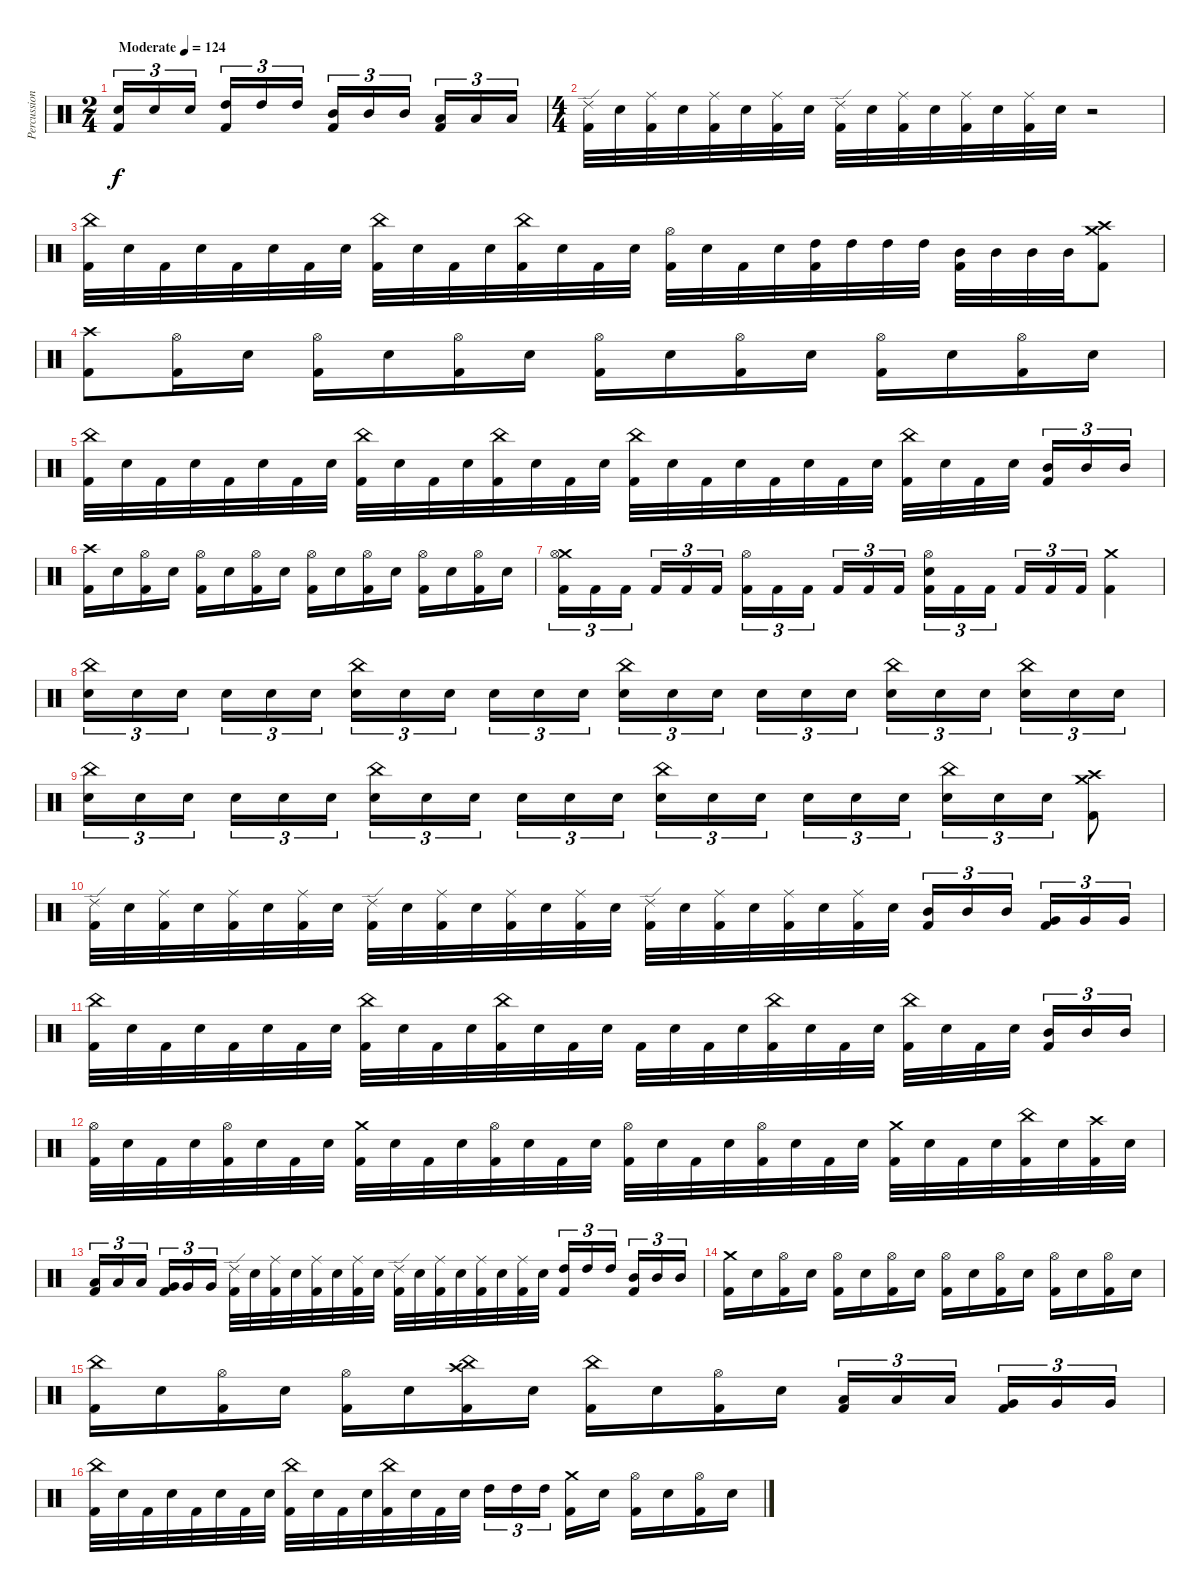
\track ("Percussion" "Percussion") {instrument percussion}
\staff {score}
\articulation defaults
\ts (2 4)
\tempo (124 "Moderate")
\clef neutral
\ks c
("Electric Snare (hit)" "Kick (hit) 2").16{tu (3 2) dy f} "Electric Snare (hit)".16{tu (3 2)} "Electric Snare (hit)".16{tu (3 2) beam splitsecondary} ("High Tom (hit)" "Kick (hit) 2").16{tu (3 2)} "High Tom (hit)".16{tu (3 2)} "High Tom (hit)".16{tu (3 2)} ("Mid Tom (hit)" "Kick (hit) 2").16{tu (3 2)} "Mid Tom (hit)".16{tu (3 2)} "Mid Tom (hit)".16{tu (3 2) beam splitsecondary} ("Low Tom (hit)" "Kick (hit) 2").16{tu (3 2)} "Low Tom (hit)".16{tu (3 2)} "Low Tom (hit)".16{tu (3 2)} |
\ts (4 4)
("Ride (edge) 2" "Kick (hit) 2").32 "Electric Snare (hit)".32 ("Ride (middle)" "Kick (hit) 2").32 "Electric Snare (hit)".32 ("Ride (middle)" "Kick (hit) 2").32 "Electric Snare (hit)".32 ("Ride (middle)" "Kick (hit) 2").32 "Electric Snare (hit)".32 ("Ride (edge) 2" "Kick (hit) 2").32 "Electric Snare (hit)".32 ("Ride (middle)" "Kick (hit) 2").32 "Electric Snare (hit)".32 ("Ride (middle)" "Kick (hit) 2").32 "Electric Snare (hit)".32 ("Ride (middle)" "Kick (hit) 2").32 "Electric Snare (hit)".32 r.2 |
("China (hit)" "Kick (hit) 2").32 "Electric Snare (hit)".32 "Kick (hit) 2".32 "Electric Snare (hit)".32 "Kick (hit) 2".32 "Electric Snare (hit)".32 "Kick (hit) 2".32 "Electric Snare (hit)".32 ("China (hit)" "Kick (hit) 2").32 "Electric Snare (hit)".32 "Kick (hit) 2".32 "Electric Snare (hit)".32 ("China (hit)" "Kick (hit) 2").32 "Electric Snare (hit)".32 "Kick (hit) 2".32 "Electric Snare (hit)".32 ("Hi-Hat (open)" "Kick (hit) 2").32 "Electric Snare (hit)".32 "Kick (hit) 2".32 "Electric Snare (hit)".32 ("High Tom (hit)" "Kick (hit) 2").32 "High Tom (hit)".32 "High Tom (hit)".32 "High Tom (hit)".32 ("Mid Tom (hit)" "Kick (hit) 2").32 "Mid Tom (hit)".32 "Mid Tom (hit)".32 "Mid Tom (hit)".32 ("Crash high (hit)" "Crash medium (hit)" "Kick (hit) 2").8 |
("Crash high (hit)" "Kick (hit) 2").8 ("Hi-Hat (open)" "Kick (hit) 2").16 "Electric Snare (hit)".16 ("Hi-Hat (open)" "Kick (hit) 2").16 "Electric Snare (hit)".16 ("Hi-Hat (open)" "Kick (hit) 2").16 "Electric Snare (hit)".16 ("Hi-Hat (open)" "Kick (hit) 2").16 "Electric Snare (hit)".16 ("Hi-Hat (open)" "Kick (hit) 2").16 "Electric Snare (hit)".16 ("Hi-Hat (open)" "Kick (hit) 2").16 "Electric Snare (hit)".16 ("Hi-Hat (open)" "Kick (hit) 2").16 "Electric Snare (hit)".16 |
("China (hit)" "Kick (hit) 2").32 "Electric Snare (hit)".32 "Kick (hit) 2".32 "Electric Snare (hit)".32 "Kick (hit) 2".32 "Electric Snare (hit)".32 "Kick (hit) 2".32 "Electric Snare (hit)".32 ("China (hit)" "Kick (hit) 2").32 "Electric Snare (hit)".32 "Kick (hit) 2".32 "Electric Snare (hit)".32 ("China (hit)" "Kick (hit) 2").32 "Electric Snare (hit)".32 "Kick (hit) 2".32 "Electric Snare (hit)".32 ("China (hit)" "Kick (hit) 2").32 "Electric Snare (hit)".32 "Kick (hit) 2".32 "Electric Snare (hit)".32 "Kick (hit) 2".32 "Electric Snare (hit)".32 "Kick (hit) 2".32 "Electric Snare (hit)".32 ("China (hit)" "Kick (hit) 2").32 "Electric Snare (hit)".32 "Kick (hit) 2".32 "Electric Snare (hit)".32{beam splitsecondary} ("Mid Tom (hit)" "Kick (hit) 2").16{tu (3 2)} "Mid Tom (hit)".16{tu (3 2)} "Mid Tom (hit)".16{tu (3 2)} |
("Crash high (hit)" "Kick (hit) 2").16 "Electric Snare (hit)".16 ("Hi-Hat (open)" "Kick (hit) 2").16 "Electric Snare (hit)".16 ("Hi-Hat (open)" "Kick (hit) 2").16 "Electric Snare (hit)".16 ("Hi-Hat (open)" "Kick (hit) 2").16 "Electric Snare (hit)".16 ("Hi-Hat (open)" "Kick (hit) 2").16 "Electric Snare (hit)".16 ("Hi-Hat (open)" "Kick (hit) 2").16 "Electric Snare (hit)".16 ("Hi-Hat (open)" "Kick (hit) 2").16 "Electric Snare (hit)".16 ("Hi-Hat (open)" "Kick (hit) 2").16 "Electric Snare (hit)".16 |
("Crash medium (hit)" "Hi-Hat (open)" "Kick (hit) 2").16{tu (3 2)} "Kick (hit) 2".16{tu (3 2)} "Kick (hit) 2".16{tu (3 2) beam splitsecondary} "Kick (hit) 2".16{tu (3 2)} "Kick (hit) 2".16{tu (3 2)} "Kick (hit) 2".16{tu (3 2)} ("Hi-Hat (open)" "Kick (hit) 2").16{tu (3 2)} "Kick (hit) 2".16{tu (3 2)} "Kick (hit) 2".16{tu (3 2) beam splitsecondary} "Kick (hit) 2".16{tu (3 2)} "Kick (hit) 2".16{tu (3 2)} "Kick (hit) 2".16{tu (3 2)} ("Hi-Hat (open)" "Electric Snare (hit)" "Kick (hit) 2").16{tu (3 2)} "Kick (hit) 2".16{tu (3 2)} "Kick (hit) 2".16{tu (3 2) beam splitsecondary} "Kick (hit) 2".16{tu (3 2)} "Kick (hit) 2".16{tu (3 2)} "Kick (hit) 2".16{tu (3 2)} ("Crash medium (hit)" "Kick (hit) 2").4 |
("China (hit)" "Electric Snare (hit)").16{tu (3 2)} "Electric Snare (hit)".16{tu (3 2)} "Electric Snare (hit)".16{tu (3 2) beam splitsecondary} "Electric Snare (hit)".16{tu (3 2)} "Electric Snare (hit)".16{tu (3 2)} "Electric Snare (hit)".16{tu (3 2)} ("China (hit)" "Electric Snare (hit)").16{tu (3 2)} "Electric Snare (hit)".16{tu (3 2)} "Electric Snare (hit)".16{tu (3 2) beam splitsecondary} "Electric Snare (hit)".16{tu (3 2)} "Electric Snare (hit)".16{tu (3 2)} "Electric Snare (hit)".16{tu (3 2)} ("China (hit)" "Electric Snare (hit)").16{tu (3 2)} "Electric Snare (hit)".16{tu (3 2)} "Electric Snare (hit)".16{tu (3 2) beam splitsecondary} "Electric Snare (hit)".16{tu (3 2)} "Electric Snare (hit)".16{tu (3 2)} "Electric Snare (hit)".16{tu (3 2)} ("China (hit)" "Electric Snare (hit)").16{tu (3 2)} "Electric Snare (hit)".16{tu (3 2)} "Electric Snare (hit)".16{tu (3 2) beam splitsecondary} ("China (hit)" "Electric Snare (hit)").16{tu (3 2)} "Electric Snare (hit)".16{tu (3 2)} "Electric Snare (hit)".16{tu (3 2)} |
("China (hit)" "Electric Snare (hit)").16{tu (3 2)} "Electric Snare (hit)".16{tu (3 2)} "Electric Snare (hit)".16{tu (3 2) beam splitsecondary} "Electric Snare (hit)".16{tu (3 2)} "Electric Snare (hit)".16{tu (3 2)} "Electric Snare (hit)".16{tu (3 2)} ("China (hit)" "Electric Snare (hit)").16{tu (3 2)} "Electric Snare (hit)".16{tu (3 2)} "Electric Snare (hit)".16{tu (3 2) beam splitsecondary} "Electric Snare (hit)".16{tu (3 2)} "Electric Snare (hit)".16{tu (3 2)} "Electric Snare (hit)".16{tu (3 2)} ("China (hit)" "Electric Snare (hit)").16{tu (3 2)} "Electric Snare (hit)".16{tu (3 2)} "Electric Snare (hit)".16{tu (3 2) beam splitsecondary} "Electric Snare (hit)".16{tu (3 2)} "Electric Snare (hit)".16{tu (3 2)} "Electric Snare (hit)".16{tu (3 2)} ("China (hit)" "Electric Snare (hit)").16{tu (3 2)} "Electric Snare (hit)".16{tu (3 2)} "Electric Snare (hit)".16{tu (3 2)} ("Crash medium (hit)" "Crash high (hit)" "Kick (hit) 2").8 |
("Ride (edge) 2" "Kick (hit) 2").32 "Electric Snare (hit)".32 ("Ride (middle)" "Kick (hit) 2").32 "Electric Snare (hit)".32 ("Ride (middle)" "Kick (hit) 2").32 "Electric Snare (hit)".32 ("Ride (middle)" "Kick (hit) 2").32 "Electric Snare (hit)".32 ("Ride (edge) 2" "Kick (hit) 2").32 "Electric Snare (hit)".32 ("Ride (middle)" "Kick (hit) 2").32 "Electric Snare (hit)".32 ("Ride (middle)" "Kick (hit) 2").32 "Electric Snare (hit)".32 ("Ride (middle)" "Kick (hit) 2").32 "Electric Snare (hit)".32 ("Ride (edge) 2" "Kick (hit) 2").32 "Electric Snare (hit)".32 ("Ride (middle)" "Kick (hit) 2").32 "Electric Snare (hit)".32 ("Ride (middle)" "Kick (hit) 2").32 "Electric Snare (hit)".32 ("Ride (middle)" "Kick (hit) 2").32 "Electric Snare (hit)".32 ("Mid Tom (hit)" "Kick (hit) 2").16{tu (3 2)} "Mid Tom (hit)".16{tu (3 2)} "Mid Tom (hit)".16{tu (3 2) beam splitsecondary} ("Very Low Tom (hit)" "Kick (hit) 2").16{tu (3 2)} "Very Low Tom (hit)".16{tu (3 2)} "Very Low Tom (hit)".16{tu (3 2)} |
("China (hit)" "Kick (hit) 2").32 "Electric Snare (hit)".32 "Kick (hit) 2".32 "Electric Snare (hit)".32 "Kick (hit) 2".32 "Electric Snare (hit)".32 "Kick (hit) 2".32 "Electric Snare (hit)".32 ("China (hit)" "Kick (hit) 2").32 "Electric Snare (hit)".32 "Kick (hit) 2".32 "Electric Snare (hit)".32 ("China (hit)" "Kick (hit) 2").32 "Electric Snare (hit)".32 "Kick (hit) 2".32 "Electric Snare (hit)".32 "Kick (hit) 2".32 "Electric Snare (hit)".32 "Kick (hit) 2".32 "Electric Snare (hit)".32 ("China (hit)" "Kick (hit) 2").32 "Electric Snare (hit)".32 "Kick (hit) 2".32 "Electric Snare (hit)".32 ("China (hit)" "Kick (hit) 2").32 "Electric Snare (hit)".32 "Kick (hit) 2".32 "Electric Snare (hit)".32{beam splitsecondary} ("Mid Tom (hit)" "Kick (hit) 2").16{tu (3 2)} "Mid Tom (hit)".16{tu (3 2)} "Mid Tom (hit)".16{tu (3 2)} |
("Hi-Hat (open)" "Kick (hit) 2").32 "Electric Snare (hit)".32 "Kick (hit) 2".32 "Electric Snare (hit)".32 ("Hi-Hat (open)" "Kick (hit) 2").32 "Electric Snare (hit)".32 "Kick (hit) 2".32 "Electric Snare (hit)".32 ("Crash medium (hit)" "Kick (hit) 2").32 "Electric Snare (hit)".32 "Kick (hit) 2".32 "Electric Snare (hit)".32 ("Hi-Hat (open)" "Kick (hit) 2").32 "Electric Snare (hit)".32 "Kick (hit) 2".32 "Electric Snare (hit)".32 ("Hi-Hat (open)" "Kick (hit) 2").32 "Electric Snare (hit)".32 "Kick (hit) 2".32 "Electric Snare (hit)".32 ("Hi-Hat (open)" "Kick (hit) 2").32 "Electric Snare (hit)".32 "Kick (hit) 2".32 "Electric Snare (hit)".32 ("Crash medium (hit)" "Kick (hit) 2").32 "Electric Snare (hit)".32 "Kick (hit) 2".32 "Electric Snare (hit)".32 ("China (hit)" "Kick (hit) 2").32 "Electric Snare (hit)".32 ("Crash high (hit)" "Kick (hit) 2").32 "Electric Snare (hit)".32 |
("Low Tom (hit)" "Kick (hit) 2").16{tu (3 2)} "Low Tom (hit)".16{tu (3 2)} "Low Tom (hit)".16{tu (3 2) beam splitsecondary} ("Very Low Tom (hit)" "Kick (hit) 2").16{tu (3 2)} "Very Low Tom (hit)".16{tu (3 2)} "Very Low Tom (hit)".16{tu (3 2)} ("Ride (edge) 2" "Kick (hit) 2").32 "Electric Snare (hit)".32 ("Ride (middle)" "Kick (hit) 2").32 "Electric Snare (hit)".32 ("Ride (middle)" "Kick (hit) 2").32 "Electric Snare (hit)".32 ("Ride (middle)" "Kick (hit) 2").32 "Electric Snare (hit)".32 ("Ride (edge) 2" "Kick (hit) 2").32 "Electric Snare (hit)".32 ("Ride (middle)" "Kick (hit) 2").32 "Electric Snare (hit)".32 ("Ride (middle)" "Kick (hit) 2").32 "Electric Snare (hit)".32 ("Ride (middle)" "Kick (hit) 2").32 "Electric Snare (hit)".32 ("High Tom (hit)" "Kick (hit) 2").16{tu (3 2)} "High Tom (hit)".16{tu (3 2)} "High Tom (hit)".16{tu (3 2) beam splitsecondary} ("Mid Tom (hit)" "Kick (hit) 2").16{tu (3 2)} "Mid Tom (hit)".16{tu (3 2)} "Mid Tom (hit)".16{tu (3 2)} |
("Crash medium (hit)" "Kick (hit) 2").16 "Electric Snare (hit)".16 ("Hi-Hat (open)" "Kick (hit) 2").16 "Electric Snare (hit)".16 ("Hi-Hat (open)" "Kick (hit) 2").16 "Electric Snare (hit)".16 ("Hi-Hat (open)" "Kick (hit) 2").16 "Electric Snare (hit)".16 ("Hi-Hat (open)" "Kick (hit) 2").16 "Electric Snare (hit)".16 ("Hi-Hat (open)" "Kick (hit) 2").16 "Electric Snare (hit)".16 ("Hi-Hat (open)" "Kick (hit) 2").16 "Electric Snare (hit)".16 ("Hi-Hat (open)" "Kick (hit) 2").16 "Electric Snare (hit)".16 |
("China (hit)" "Kick (hit) 2").16 "Electric Snare (hit)".16 ("Hi-Hat (open)" "Kick (hit) 2").16 "Electric Snare (hit)".16 ("Hi-Hat (open)" "Kick (hit) 2").16 "Electric Snare (hit)".16 ("Crash high (hit)" "China (hit)" "Kick (hit) 2").16 "Electric Snare (hit)".16 ("China (hit)" "Kick (hit) 2").16 "Electric Snare (hit)".16 ("Hi-Hat (open)" "Kick (hit) 2").16 "Electric Snare (hit)".16 ("Low Tom (hit)" "Kick (hit) 2").16{tu (3 2)} "Low Tom (hit)".16{tu (3 2)} "Low Tom (hit)".16{tu (3 2) beam splitsecondary} ("Very Low Tom (hit)" "Kick (hit) 2").16{tu (3 2)} "Very Low Tom (hit)".16{tu (3 2)} "Very Low Tom (hit)".16{tu (3 2)} |
("China (hit)" "Kick (hit) 2").32 "Electric Snare (hit)".32 "Kick (hit) 2".32 "Electric Snare (hit)".32 "Kick (hit) 2".32 "Electric Snare (hit)".32 "Kick (hit) 2".32 "Electric Snare (hit)".32 ("China (hit)" "Kick (hit) 2").32 "Electric Snare (hit)".32 "Kick (hit) 2".32 "Electric Snare (hit)".32 ("China (hit)" "Kick (hit) 2").32 "Electric Snare (hit)".32 "Kick (hit) 2".32 "Electric Snare (hit)".32 "High Tom (hit)".16{tu (3 2)} "High Tom (hit)".16{tu (3 2)} "High Tom (hit)".16{tu (3 2) beam splitsecondary} ("Crash medium (hit)" "Kick (hit) 2").16 "Electric Snare (hit)".16 ("Hi-Hat (open)" "Kick (hit) 2").16 "Electric Snare (hit)".16 ("Hi-Hat (open)" "Kick (hit) 2").16 "Electric Snare (hit)".16
